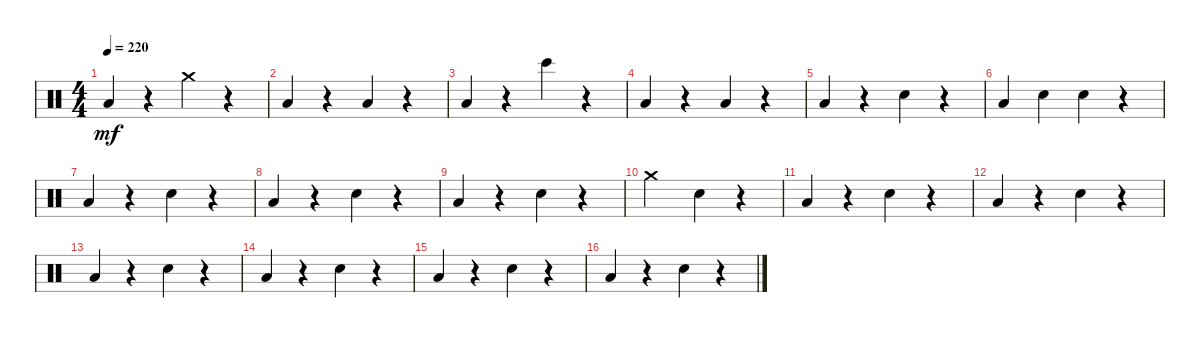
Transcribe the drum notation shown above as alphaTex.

\track "" {instrument percussion}
\staff {score}
\articulation defaults
\ts (4 4)
\tempo 220
\clef neutral
\ks c "Low Tom (hit)".4{dy mf}
r.4 "Crash medium (hit)".4 r.4 |
"Low Tom (hit)".4 r.4 "Low Tom (hit)".4 r.4 |
"Low Tom (hit)".4 r.4 "Bongo High (hit)".4 r.4 |
"Low Tom (hit)".4 r.4 "Low Tom (hit)".4 r.4 |
"Low Tom (hit)".4 r.4 "Snare (hit) 2".4 r.4 |
"Low Tom (hit)".4 "Snare (hit) 2".4 "Snare (hit) 2".4 r.4 |
"Low Tom (hit)".4 r.4 "Snare (hit) 2".4 r.4 |
"Low Tom (hit)".4 r.4 "Snare (hit) 2".4 r.4 |
"Low Tom (hit)".4 r.4 "Snare (hit) 2".4 r.4 |
"Crash medium (hit)".2 "Snare (hit) 2".4 r.4 |
"Low Tom (hit)".4 r.4 "Snare (hit) 2".4 r.4 |
"Low Tom (hit)".4 r.4 "Snare (hit) 2".4 r.4 |
"Low Tom (hit)".4 r.4 "Snare (hit) 2".4 r.4 |
"Low Tom (hit)".4 r.4 "Snare (hit) 2".4 r.4 |
"Low Tom (hit)".4 r.4 "Snare (hit) 2".4 r.4 |
"Low Tom (hit)".4 r.4 "Snare (hit) 2".4 r.4
